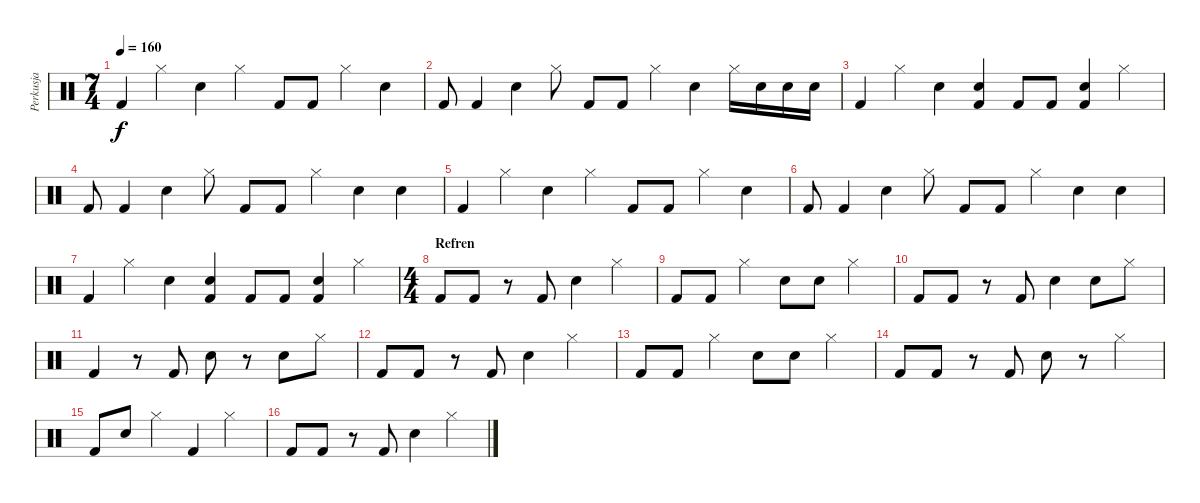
\track ("Perkusja" "Perkusja") {instrument percussion}
\staff {score}
\articulation defaults
\ts (7 4)
\tempo 160
\clef neutral
\ks c "Kick (hit) 2".4{dy f} "Hi-Hat (closed)".4 "Snare (hit) 2".4 "Hi-Hat (closed)".4 "Kick (hit) 2".8 "Kick (hit) 2".8 "Hi-Hat (closed)".4 "Snare (hit) 2".4
|
"Kick (hit) 2".8 "Kick (hit) 2".4 "Snare (hit) 2".4 "Hi-Hat (closed)".8 "Kick (hit) 2".8 "Kick (hit) 2".8 "Hi-Hat (closed)".4 "Snare (hit) 2".4 "Hi-Hat (closed)".16 "Snare (hit) 2".16 "Snare (hit) 2".16 "Snare (hit) 2".16 |
"Kick (hit) 2".4 "Hi-Hat (closed)".4 "Snare (hit) 2".4 ("Snare (hit) 2" "Kick (hit) 2").4 "Kick (hit) 2".8 "Kick (hit) 2".8 ("Snare (hit) 2" "Kick (hit) 2").4 "Hi-Hat (closed)".4 |
"Kick (hit) 2".8 "Kick (hit) 2".4 "Snare (hit) 2".4 "Hi-Hat (closed)".8 "Kick (hit) 2".8 "Kick (hit) 2".8 "Hi-Hat (closed)".4 "Snare (hit) 2".4 "Snare (hit) 2".4 |
"Kick (hit) 2".4 "Hi-Hat (closed)".4 "Snare (hit) 2".4 "Hi-Hat (closed)".4 "Kick (hit) 2".8 "Kick (hit) 2".8 "Hi-Hat (closed)".4 "Snare (hit) 2".4 |
"Kick (hit) 2".8 "Kick (hit) 2".4 "Snare (hit) 2".4 "Hi-Hat (closed)".8 "Kick (hit) 2".8 "Kick (hit) 2".8 "Hi-Hat (closed)".4 "Snare (hit) 2".4 "Snare (hit) 2".4 |
"Kick (hit) 2".4 "Hi-Hat (closed)".4 "Snare (hit) 2".4 ("Snare (hit) 2" "Kick (hit) 2").4 "Kick (hit) 2".8 "Kick (hit) 2".8 ("Snare (hit) 2" "Kick (hit) 2").4 "Hi-Hat (closed)".4 |
\ts (4 4)
\section ("" "Refren")
"Kick (hit) 2".8 "Kick (hit) 2".8 r.8 "Kick (hit) 2".8 "Snare (hit) 2".4 "Hi-Hat (closed)".4 |
"Kick (hit) 2".8 "Kick (hit) 2".8 "Hi-Hat (closed)".4 "Snare (hit) 2".8 "Snare (hit) 2".8 "Hi-Hat (closed)".4 |
"Kick (hit) 2".8 "Kick (hit) 2".8 r.8 "Kick (hit) 2".8 "Snare (hit) 2".4 "Snare (hit) 2".8 "Hi-Hat (closed)".8 |
"Kick (hit) 2".4 r.8 "Kick (hit) 2".8 "Snare (hit) 2".8 r.8 "Snare (hit) 2".8 "Hi-Hat (closed)".8 |
"Kick (hit) 2".8 "Kick (hit) 2".8 r.8 "Kick (hit) 2".8 "Snare (hit) 2".4 "Hi-Hat (closed)".4 |
"Kick (hit) 2".8 "Kick (hit) 2".8 "Hi-Hat (closed)".4 "Snare (hit) 2".8 "Snare (hit) 2".8 "Hi-Hat (closed)".4 |
"Kick (hit) 2".8 "Kick (hit) 2".8 r.8 "Kick (hit) 2".8 "Snare (hit) 2".8 r.8 "Hi-Hat (closed)".4 |
"Kick (hit) 2".8 "Snare (hit) 2".8 "Hi-Hat (closed)".4 "Kick (hit) 2".4 "Hi-Hat (closed)".4 |
"Kick (hit) 2".8 "Kick (hit) 2".8 r.8 "Kick (hit) 2".8 "Snare (hit) 2".4 "Hi-Hat (closed)".4
